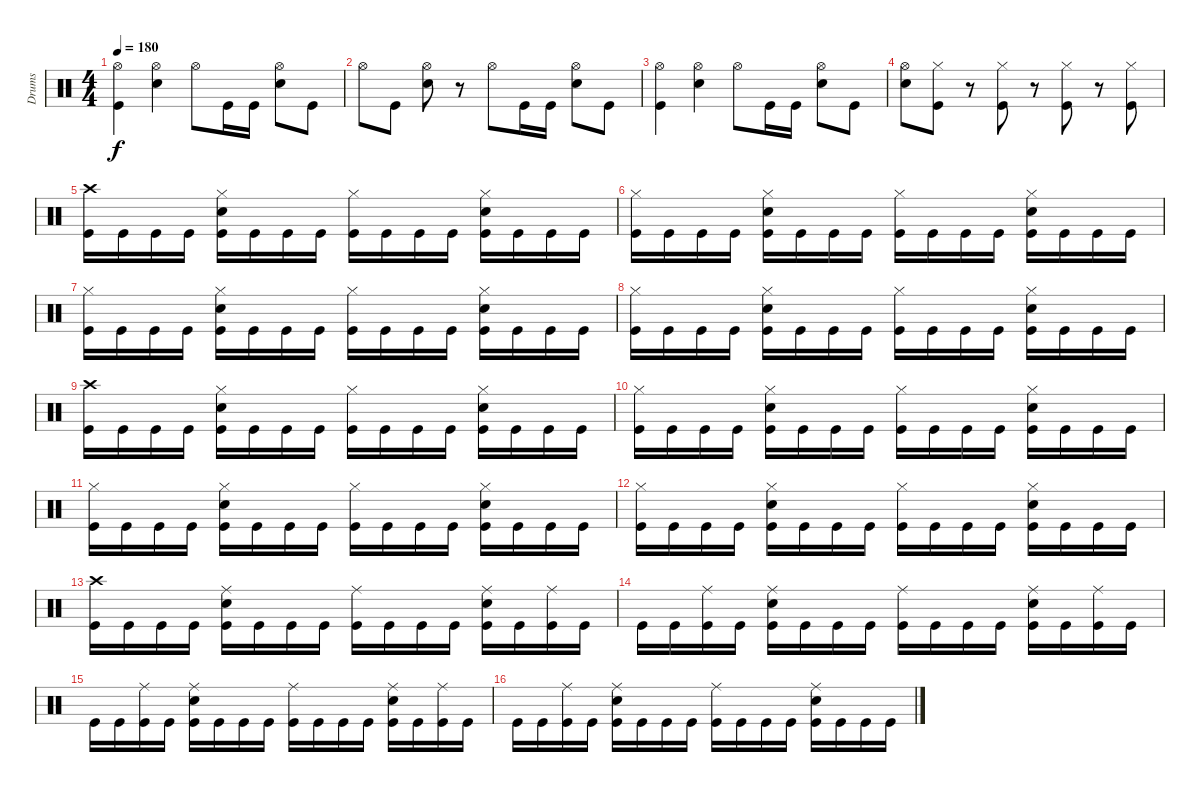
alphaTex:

\track ("Drums" "Drums") {instrument percussion}
\staff {score}
\articulation defaults
\ts (4 4)
\tempo 180
\clef neutral
\ks c
("Hi-Hat (open)" "Kick (hit)").4{dy f} ("Hi-Hat (open)" "Snare (hit) 2").4 "Hi-Hat (open)".8 "Kick (hit)".16 "Kick (hit)".16 ("Hi-Hat (open)" "Snare (hit) 2").8 "Kick (hit)".8 |
"Hi-Hat (open)".8 "Kick (hit)".8 ("Hi-Hat (open)" "Snare (hit) 2").8 r.8 "Hi-Hat (open)".8 "Kick (hit)".16 "Kick (hit)".16 ("Hi-Hat (open)" "Snare (hit) 2").8 "Kick (hit)".8 |
("Hi-Hat (open)" "Kick (hit)").4 ("Hi-Hat (open)" "Snare (hit) 2").4 "Hi-Hat (open)".8 "Kick (hit)".16 "Kick (hit)".16 ("Hi-Hat (open)" "Snare (hit) 2").8 "Kick (hit)".8 |
("Hi-Hat (open)" "Snare (hit) 2").8 ("Hi-Hat (closed)" "Kick (hit)").8 r.8 ("Hi-Hat (closed)" "Kick (hit)").8 r.8 ("Hi-Hat (closed)" "Kick (hit)").8 r.8 ("Hi-Hat (closed)" "Kick (hit)").8 |
("Crash high (hit)" "Kick (hit)").16 "Kick (hit)".16 "Kick (hit)".16 "Kick (hit)".16 ("Hi-Hat (closed)" "Snare (hit) 2" "Kick (hit)").16 "Kick (hit)".16 "Kick (hit)".16 "Kick (hit)".16 ("Hi-Hat (closed)" "Kick (hit)").16 "Kick (hit)".16 "Kick (hit)".16 "Kick (hit)".16 ("Hi-Hat (closed)" "Snare (hit) 2" "Kick (hit)").16 "Kick (hit)".16 "Kick (hit)".16 "Kick (hit)".16 |
("Hi-Hat (closed)" "Kick (hit)").16 "Kick (hit)".16 "Kick (hit)".16 "Kick (hit)".16 ("Hi-Hat (closed)" "Snare (hit) 2" "Kick (hit)").16 "Kick (hit)".16 "Kick (hit)".16 "Kick (hit)".16 ("Hi-Hat (closed)" "Kick (hit)").16 "Kick (hit)".16 "Kick (hit)".16 "Kick (hit)".16 ("Hi-Hat (closed)" "Snare (hit) 2" "Kick (hit)").16 "Kick (hit)".16 "Kick (hit)".16 "Kick (hit)".16 |
("Hi-Hat (closed)" "Kick (hit)").16 "Kick (hit)".16 "Kick (hit)".16 "Kick (hit)".16 ("Hi-Hat (closed)" "Snare (hit) 2" "Kick (hit)").16 "Kick (hit)".16 "Kick (hit)".16 "Kick (hit)".16 ("Hi-Hat (closed)" "Kick (hit)").16 "Kick (hit)".16 "Kick (hit)".16 "Kick (hit)".16 ("Hi-Hat (closed)" "Snare (hit) 2" "Kick (hit)").16 "Kick (hit)".16 "Kick (hit)".16 "Kick (hit)".16 |
("Hi-Hat (closed)" "Kick (hit)").16 "Kick (hit)".16 "Kick (hit)".16 "Kick (hit)".16 ("Hi-Hat (closed)" "Snare (hit) 2" "Kick (hit)").16 "Kick (hit)".16 "Kick (hit)".16 "Kick (hit)".16 ("Hi-Hat (closed)" "Kick (hit)").16 "Kick (hit)".16 "Kick (hit)".16 "Kick (hit)".16 ("Hi-Hat (closed)" "Snare (hit) 2" "Kick (hit)").16 "Kick (hit)".16 "Kick (hit)".16 "Kick (hit)".16 |
("Crash high (hit)" "Kick (hit)").16 "Kick (hit)".16 "Kick (hit)".16 "Kick (hit)".16 ("Hi-Hat (closed)" "Snare (hit) 2" "Kick (hit)").16 "Kick (hit)".16 "Kick (hit)".16 "Kick (hit)".16 ("Hi-Hat (closed)" "Kick (hit)").16 "Kick (hit)".16 "Kick (hit)".16 "Kick (hit)".16 ("Hi-Hat (closed)" "Snare (hit) 2" "Kick (hit)").16 "Kick (hit)".16 "Kick (hit)".16 "Kick (hit)".16 |
("Hi-Hat (closed)" "Kick (hit)").16 "Kick (hit)".16 "Kick (hit)".16 "Kick (hit)".16 ("Hi-Hat (closed)" "Snare (hit) 2" "Kick (hit)").16 "Kick (hit)".16 "Kick (hit)".16 "Kick (hit)".16 ("Hi-Hat (closed)" "Kick (hit)").16 "Kick (hit)".16 "Kick (hit)".16 "Kick (hit)".16 ("Hi-Hat (closed)" "Snare (hit) 2" "Kick (hit)").16 "Kick (hit)".16 "Kick (hit)".16 "Kick (hit)".16 |
("Hi-Hat (closed)" "Kick (hit)").16 "Kick (hit)".16 "Kick (hit)".16 "Kick (hit)".16 ("Hi-Hat (closed)" "Snare (hit) 2" "Kick (hit)").16 "Kick (hit)".16 "Kick (hit)".16 "Kick (hit)".16 ("Hi-Hat (closed)" "Kick (hit)").16 "Kick (hit)".16 "Kick (hit)".16 "Kick (hit)".16 ("Hi-Hat (closed)" "Snare (hit) 2" "Kick (hit)").16 "Kick (hit)".16 "Kick (hit)".16 "Kick (hit)".16 |
("Hi-Hat (closed)" "Kick (hit)").16 "Kick (hit)".16 "Kick (hit)".16 "Kick (hit)".16 ("Hi-Hat (closed)" "Snare (hit) 2" "Kick (hit)").16 "Kick (hit)".16 "Kick (hit)".16 "Kick (hit)".16 ("Hi-Hat (closed)" "Kick (hit)").16 "Kick (hit)".16 "Kick (hit)".16 "Kick (hit)".16 ("Hi-Hat (closed)" "Snare (hit) 2" "Kick (hit)").16 "Kick (hit)".16 "Kick (hit)".16 "Kick (hit)".16 |
("Crash high (hit)" "Kick (hit)").16 "Kick (hit)".16 "Kick (hit)".16 "Kick (hit)".16 ("Ride (middle)" "Snare (hit) 2" "Kick (hit)").16 "Kick (hit)".16 "Kick (hit)".16 "Kick (hit)".16 ("Ride (middle)" "Kick (hit)").16 "Kick (hit)".16 "Kick (hit)".16 "Kick (hit)".16 ("Ride (middle)" "Snare (hit) 2" "Kick (hit)").16 "Kick (hit)".16 ("Ride (middle)" "Kick (hit)").16 "Kick (hit)".16 |
"Kick (hit)".16 "Kick (hit)".16 ("Ride (middle)" "Kick (hit)").16 "Kick (hit)".16 ("Ride (middle)" "Snare (hit) 2" "Kick (hit)").16 "Kick (hit)".16 "Kick (hit)".16 "Kick (hit)".16 ("Ride (middle)" "Kick (hit)").16 "Kick (hit)".16 "Kick (hit)".16 "Kick (hit)".16 ("Ride (middle)" "Snare (hit) 2" "Kick (hit)").16 "Kick (hit)".16 ("Ride (middle)" "Kick (hit)").16 "Kick (hit)".16 |
"Kick (hit)".16 "Kick (hit)".16 ("Ride (middle)" "Kick (hit)").16 "Kick (hit)".16 ("Ride (middle)" "Snare (hit) 2" "Kick (hit)").16 "Kick (hit)".16 "Kick (hit)".16 "Kick (hit)".16 ("Ride (middle)" "Kick (hit)").16 "Kick (hit)".16 "Kick (hit)".16 "Kick (hit)".16 ("Ride (middle)" "Snare (hit) 2" "Kick (hit)").16 "Kick (hit)".16 ("Ride (middle)" "Kick (hit)").16 "Kick (hit)".16 |
"Kick (hit)".16 "Kick (hit)".16 ("Ride (middle)" "Kick (hit)").16 "Kick (hit)".16 ("Ride (middle)" "Snare (hit) 2" "Kick (hit)").16 "Kick (hit)".16 "Kick (hit)".16 "Kick (hit)".16 ("Ride (middle)" "Kick (hit)").16 "Kick (hit)".16 "Kick (hit)".16 "Kick (hit)".16 ("Ride (middle)" "Snare (hit) 2" "Kick (hit)").16 "Kick (hit)".16 "Kick (hit)".16 "Kick (hit)".16
